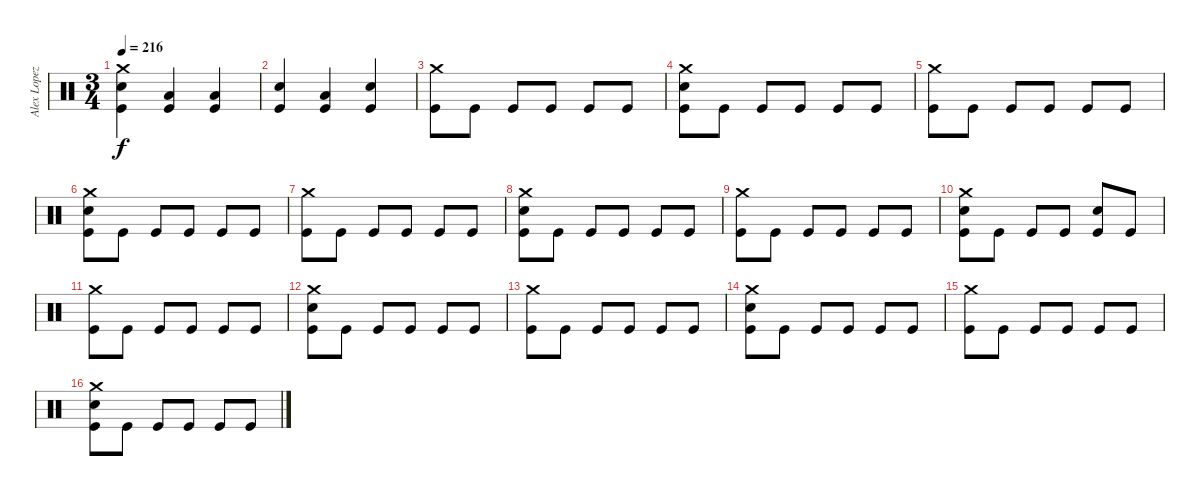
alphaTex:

\track ("Alex Lopez" "Alex Lopez") {instrument percussion}
\staff {score}
\articulation defaults
\ts (3 4)
\tempo 216
\clef neutral
\ks c
("Crash medium (hit)" "Electric Snare (hit)" "Kick (hit)").4{dy f} ("Low Tom (hit)" "Kick (hit)").4 ("Low Floor Tom (hit)" "Kick (hit)").4 |
("Electric Snare (hit)" "Kick (hit)").4 ("Low Floor Tom (hit)" "Kick (hit)").4 ("Electric Snare (hit)" "Kick (hit)").4 |
("Crash medium (hit)" "Kick (hit)").8 "Kick (hit)".8 "Kick (hit)".8 "Kick (hit)".8 "Kick (hit)".8 "Kick (hit)".8 |
("Crash medium (hit)" "Electric Snare (hit)" "Kick (hit)").8 "Kick (hit)".8 "Kick (hit)".8 "Kick (hit)".8 "Kick (hit)".8 "Kick (hit)".8 |
("Crash medium (hit)" "Kick (hit)").8 "Kick (hit)".8 "Kick (hit)".8 "Kick (hit)".8 "Kick (hit)".8 "Kick (hit)".8 |
("Crash medium (hit)" "Electric Snare (hit)" "Kick (hit)").8 "Kick (hit)".8 "Kick (hit)".8 "Kick (hit)".8 "Kick (hit)".8 "Kick (hit)".8 |
("Crash medium (hit)" "Kick (hit)").8 "Kick (hit)".8 "Kick (hit)".8 "Kick (hit)".8 "Kick (hit)".8 "Kick (hit)".8 |
("Crash medium (hit)" "Electric Snare (hit)" "Kick (hit)").8 "Kick (hit)".8 "Kick (hit)".8 "Kick (hit)".8 "Kick (hit)".8 "Kick (hit)".8 |
("Crash medium (hit)" "Kick (hit)").8 "Kick (hit)".8 "Kick (hit)".8 "Kick (hit)".8 "Kick (hit)".8 "Kick (hit)".8 |
("Crash medium (hit)" "Electric Snare (hit)" "Kick (hit)").8 "Kick (hit)".8 "Kick (hit)".8 "Kick (hit)".8 ("Electric Snare (hit)" "Kick (hit)").8 "Kick (hit)".8 |
("Crash medium (hit)" "Kick (hit)").8 "Kick (hit)".8 "Kick (hit)".8 "Kick (hit)".8 "Kick (hit)".8 "Kick (hit)".8 |
("Crash medium (hit)" "Electric Snare (hit)" "Kick (hit)").8 "Kick (hit)".8 "Kick (hit)".8 "Kick (hit)".8 "Kick (hit)".8 "Kick (hit)".8 |
("Crash medium (hit)" "Kick (hit)").8 "Kick (hit)".8 "Kick (hit)".8 "Kick (hit)".8 "Kick (hit)".8 "Kick (hit)".8 |
("Crash medium (hit)" "Electric Snare (hit)" "Kick (hit)").8 "Kick (hit)".8 "Kick (hit)".8 "Kick (hit)".8 "Kick (hit)".8 "Kick (hit)".8 |
("Crash medium (hit)" "Kick (hit)").8 "Kick (hit)".8 "Kick (hit)".8 "Kick (hit)".8 "Kick (hit)".8 "Kick (hit)".8 |
("Crash medium (hit)" "Electric Snare (hit)" "Kick (hit)").8 "Kick (hit)".8 "Kick (hit)".8 "Kick (hit)".8 "Kick (hit)".8 "Kick (hit)".8
